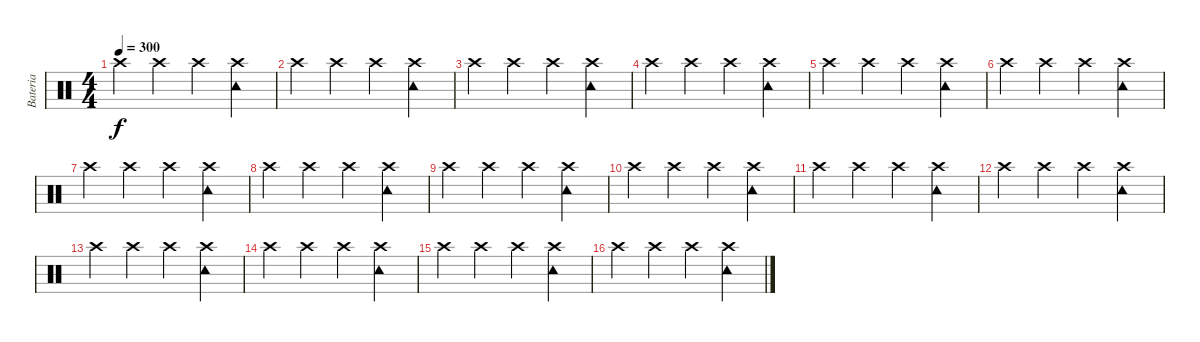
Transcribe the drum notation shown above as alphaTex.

\track ("Bateria" "Bateria") {instrument percussion}
\staff {score}
\articulation defaults
\ts (4 4)
\tempo 300
\clef neutral
\ks c "Crash high (hit)".4{dy f} "Crash high (hit)".4 "Crash high (hit)".4
("Tambourine (hit)" "Crash high (hit)").4 |
"Crash high (hit)".4 "Crash high (hit)".4 "Crash high (hit)".4 ("Tambourine (hit)" "Crash high (hit)").4 |
"Crash high (hit)".4 "Crash high (hit)".4 "Crash high (hit)".4 ("Tambourine (hit)" "Crash high (hit)").4 |
"Crash high (hit)".4 "Crash high (hit)".4 "Crash high (hit)".4 ("Tambourine (hit)" "Crash high (hit)").4 |
"Crash high (hit)".4 "Crash high (hit)".4 "Crash high (hit)".4 ("Tambourine (hit)" "Crash high (hit)").4 |
"Crash high (hit)".4 "Crash high (hit)".4 "Crash high (hit)".4 ("Tambourine (hit)" "Crash high (hit)").4 |
"Crash high (hit)".4 "Crash high (hit)".4 "Crash high (hit)".4 ("Tambourine (hit)" "Crash high (hit)").4 |
"Crash high (hit)".4 "Crash high (hit)".4 "Crash high (hit)".4 ("Tambourine (hit)" "Crash high (hit)").4 |
"Crash high (hit)".4 "Crash high (hit)".4 "Crash high (hit)".4 ("Tambourine (hit)" "Crash high (hit)").4 |
"Crash high (hit)".4 "Crash high (hit)".4 "Crash high (hit)".4 ("Tambourine (hit)" "Crash high (hit)").4 |
"Crash high (hit)".4 "Crash high (hit)".4 "Crash high (hit)".4 ("Tambourine (hit)" "Crash high (hit)").4 |
"Crash high (hit)".4 "Crash high (hit)".4 "Crash high (hit)".4 ("Tambourine (hit)" "Crash high (hit)").4 |
"Crash high (hit)".4 "Crash high (hit)".4 "Crash high (hit)".4 ("Tambourine (hit)" "Crash high (hit)").4 |
"Crash high (hit)".4 "Crash high (hit)".4 "Crash high (hit)".4 ("Tambourine (hit)" "Crash high (hit)").4 |
"Crash high (hit)".4 "Crash high (hit)".4 "Crash high (hit)".4 ("Tambourine (hit)" "Crash high (hit)").4 |
"Crash high (hit)".4 "Crash high (hit)".4 "Crash high (hit)".4 ("Tambourine (hit)" "Crash high (hit)").4
